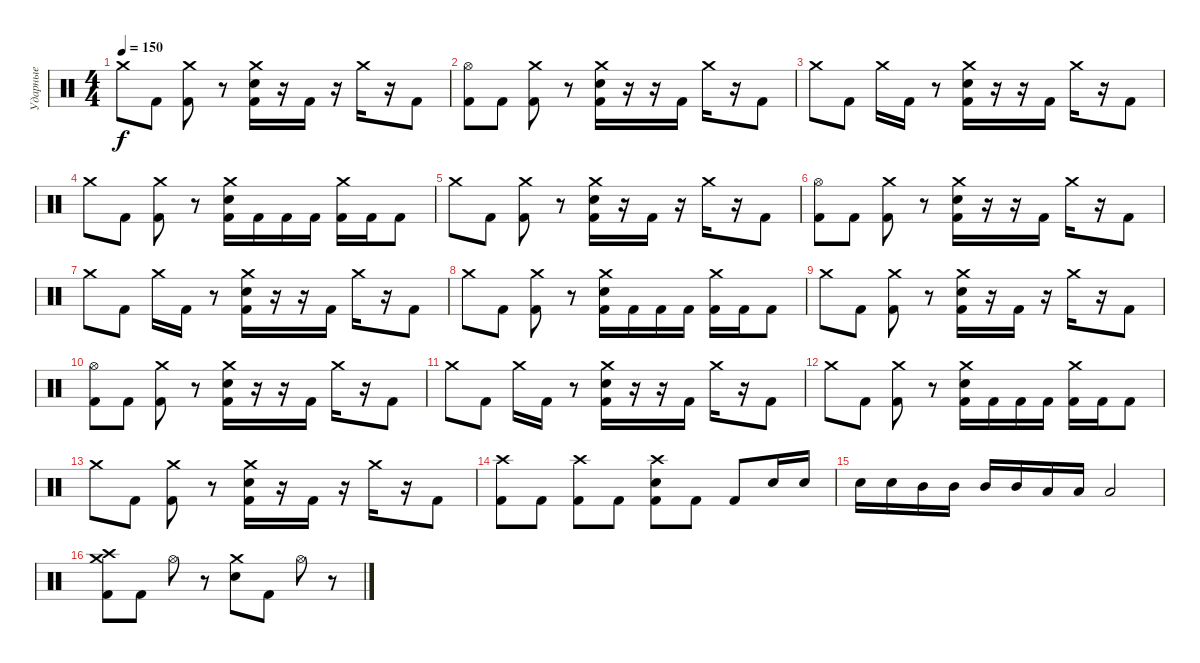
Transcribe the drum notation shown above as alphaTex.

\track ("Ударные" "Ударные") {instrument percussion}
\staff {score}
\articulation defaults
\ts (4 4)
\tempo 150
\clef neutral
\ks c "Crash medium (hit)".8{dy f} "Kick (hit) 2".8
("Crash medium (hit)" "Kick (hit) 2").8 r.8 ("Crash medium (hit)" "Electric Snare (hit)" "Kick (hit) 2").16 r.16 "Kick (hit) 2".16 r.16 "Crash medium (hit)".16 r.16 "Kick (hit) 2".8 |
("Hi-Hat (open)" "Kick (hit) 2").8 "Kick (hit) 2".8 ("Crash medium (hit)" "Kick (hit) 2").8 r.8 ("Crash medium (hit)" "Electric Snare (hit)" "Kick (hit) 2").16 r.16 r.16 "Kick (hit) 2".16 "Crash medium (hit)".16 r.16 "Kick (hit) 2".8 |
"Crash medium (hit)".8 "Kick (hit) 2".8 "Crash medium (hit)".16 "Kick (hit) 2".16 r.8 ("Crash medium (hit)" "Electric Snare (hit)" "Kick (hit) 2").16 r.16 r.16 "Kick (hit) 2".16 "Crash medium (hit)".16 r.16 "Kick (hit) 2".8 |
"Crash medium (hit)".8 "Kick (hit) 2".8 ("Crash medium (hit)" "Kick (hit) 2").8 r.8 ("Crash medium (hit)" "Electric Snare (hit)" "Kick (hit) 2").16 "Kick (hit) 2".16 "Kick (hit) 2".16 "Kick (hit) 2".16 ("Crash medium (hit)" "Kick (hit) 2").16 "Kick (hit) 2".16 "Kick (hit) 2".8 |
"Crash medium (hit)".8 "Kick (hit) 2".8 ("Crash medium (hit)" "Kick (hit) 2").8 r.8 ("Crash medium (hit)" "Electric Snare (hit)" "Kick (hit) 2").16 r.16 "Kick (hit) 2".16 r.16 "Crash medium (hit)".16 r.16 "Kick (hit) 2".8 |
("Hi-Hat (open)" "Kick (hit) 2").8 "Kick (hit) 2".8 ("Crash medium (hit)" "Kick (hit) 2").8 r.8 ("Crash medium (hit)" "Electric Snare (hit)" "Kick (hit) 2").16 r.16 r.16 "Kick (hit) 2".16 "Crash medium (hit)".16 r.16 "Kick (hit) 2".8 |
"Crash medium (hit)".8 "Kick (hit) 2".8 "Crash medium (hit)".16 "Kick (hit) 2".16 r.8 ("Crash medium (hit)" "Electric Snare (hit)" "Kick (hit) 2").16 r.16 r.16 "Kick (hit) 2".16 "Crash medium (hit)".16 r.16 "Kick (hit) 2".8 |
"Crash medium (hit)".8 "Kick (hit) 2".8 ("Crash medium (hit)" "Kick (hit) 2").8 r.8 ("Crash medium (hit)" "Electric Snare (hit)" "Kick (hit) 2").16 "Kick (hit) 2".16 "Kick (hit) 2".16 "Kick (hit) 2".16 ("Crash medium (hit)" "Kick (hit) 2").16 "Kick (hit) 2".16 "Kick (hit) 2".8 |
"Crash medium (hit)".8 "Kick (hit) 2".8 ("Crash medium (hit)" "Kick (hit) 2").8 r.8 ("Crash medium (hit)" "Electric Snare (hit)" "Kick (hit) 2").16 r.16 "Kick (hit) 2".16 r.16 "Crash medium (hit)".16 r.16 "Kick (hit) 2".8 |
("Hi-Hat (open)" "Kick (hit) 2").8 "Kick (hit) 2".8 ("Crash medium (hit)" "Kick (hit) 2").8 r.8 ("Crash medium (hit)" "Electric Snare (hit)" "Kick (hit) 2").16 r.16 r.16 "Kick (hit) 2".16 "Crash medium (hit)".16 r.16 "Kick (hit) 2".8 |
"Crash medium (hit)".8 "Kick (hit) 2".8 "Crash medium (hit)".16 "Kick (hit) 2".16 r.8 ("Crash medium (hit)" "Electric Snare (hit)" "Kick (hit) 2").16 r.16 r.16 "Kick (hit) 2".16 "Crash medium (hit)".16 r.16 "Kick (hit) 2".8 |
"Crash medium (hit)".8 "Kick (hit) 2".8 ("Crash medium (hit)" "Kick (hit) 2").8 r.8 ("Crash medium (hit)" "Electric Snare (hit)" "Kick (hit) 2").16 "Kick (hit) 2".16 "Kick (hit) 2".16 "Kick (hit) 2".16 ("Crash medium (hit)" "Kick (hit) 2").16 "Kick (hit) 2".16 "Kick (hit) 2".8 |
"Crash medium (hit)".8 "Kick (hit) 2".8 ("Crash medium (hit)" "Kick (hit) 2").8 r.8 ("Crash medium (hit)" "Electric Snare (hit)" "Kick (hit) 2").16 r.16 "Kick (hit) 2".16 r.16 "Crash medium (hit)".16 r.16 "Kick (hit) 2".8 |
("Crash high (hit)" "Kick (hit) 2").8 "Kick (hit) 2".8 ("Crash high (hit)" "Kick (hit) 2").8 "Kick (hit) 2".8 ("Crash high (hit)" "Electric Snare (hit)" "Kick (hit) 2").8 "Kick (hit) 2".8 "Kick (hit) 2".8 "Electric Snare (hit)".16 "Electric Snare (hit)".16 |
"Electric Snare (hit)".16 "Electric Snare (hit)".16 "Mid Tom (hit)".16 "Mid Tom (hit)".16 "Mid Tom (hit)".16 "Mid Tom (hit)".16 "Low Tom (hit)".16 "Low Tom (hit)".16 "Low Tom (hit)".2 |
("Crash high (hit)" "Crash medium (hit)" "Kick (hit) 2").8 "Kick (hit) 2".8 "Hi-Hat (open)".8 r.8 ("Crash medium (hit)" "Electric Snare (hit)").8 "Kick (hit) 2".8 "Hi-Hat (open)".8 r.8
